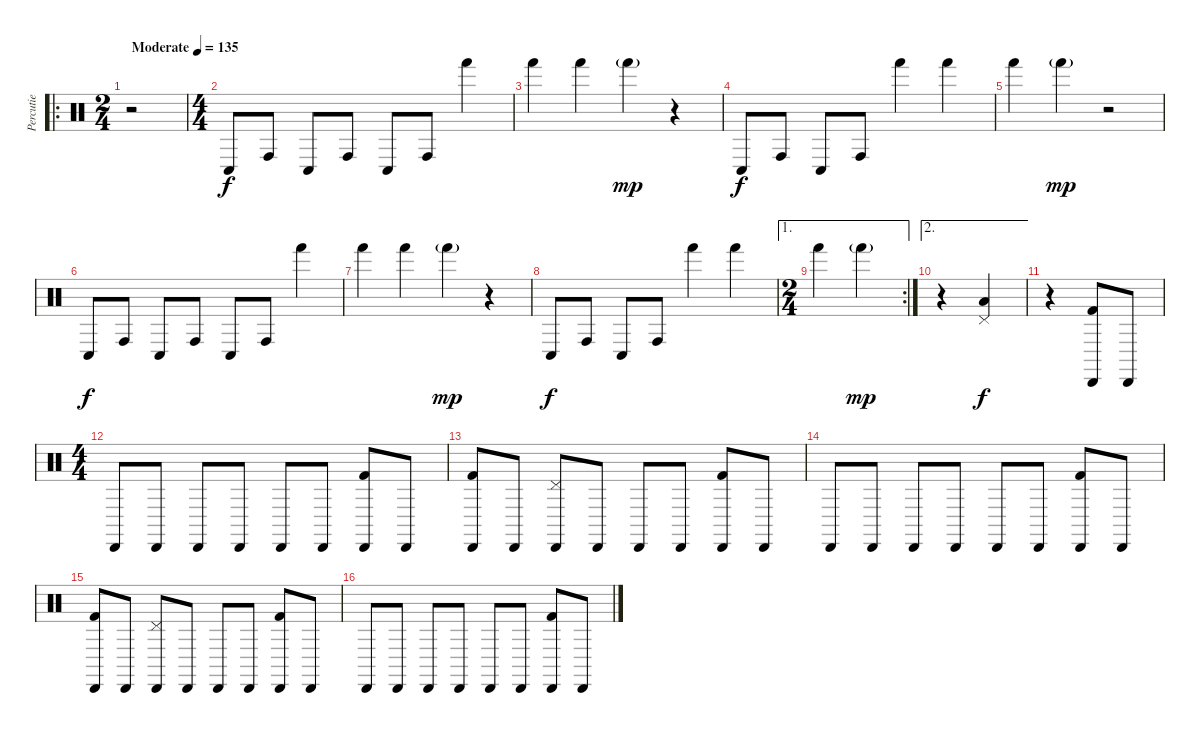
\track ("Percutie" "Percutie") {instrument percussion}
\staff {score}
\articulation defaults
\ro
\ts (2 4)
\tempo (135 "Moderate")
\clef neutral
\ks c
r.2{dy f} |
\ts (4 4)
"Conga low (hit)".8 "Conga high (hit)".8 "Conga low (hit)".8 "Conga high (hit)".8 "Conga low (hit)".8 "Conga high (hit)".8 "Hand (hit)".4 |
"Hand (hit)".4 "Hand (hit)".4 "Hand (hit)"{g}.4{dy mp} r.4 |
"Conga low (hit)".8{dy f} "Conga high (hit)".8 "Conga low (hit)".8 "Conga high (hit)".8 "Hand (hit)".4 "Hand (hit)".4 |
"Hand (hit)".4 "Hand (hit)"{g}.4{dy mp} r.2 |
"Conga low (hit)".8{dy f} "Conga high (hit)".8 "Conga low (hit)".8 "Conga high (hit)".8 "Conga low (hit)".8 "Conga high (hit)".8 "Hand (hit)".4 |
"Hand (hit)".4 "Hand (hit)".4 "Hand (hit)"{g}.4{dy mp} r.4 |
"Conga low (hit)".8{dy f} "Conga high (hit)".8 "Conga low (hit)".8 "Conga high (hit)".8 "Hand (hit)".4 "Hand (hit)".4 |
\ae 1
\rc 2
\ts (2 4)
"Hand (hit)".4 "Hand (hit)"{g}.4{dy mp} |
\ae 2
r.4 ("Pedal Hi-Hat (hit)" "Low Floor Tom (hit)").4{dy f} |
r.4 ("Cabasa (hit)" "Kick (hit) 2").8 "Cabasa (hit)".8 |
\ts (4 4)
"Cabasa (hit)".8 "Cabasa (hit)".8 "Cabasa (hit)".8 "Cabasa (hit)".8 "Cabasa (hit)".8 "Cabasa (hit)".8 ("Cabasa (hit)" "Kick (hit) 2").8 "Cabasa (hit)".8 |
("Cabasa (hit)" "Kick (hit) 2").8 "Cabasa (hit)".8 ("Pedal Hi-Hat (hit)" "Cabasa (hit)").8 "Cabasa (hit)".8 "Cabasa (hit)".8 "Cabasa (hit)".8 ("Cabasa (hit)" "Kick (hit) 2").8 "Cabasa (hit)".8 |
"Cabasa (hit)".8 "Cabasa (hit)".8 "Cabasa (hit)".8 "Cabasa (hit)".8 "Cabasa (hit)".8 "Cabasa (hit)".8 ("Cabasa (hit)" "Kick (hit) 2").8 "Cabasa (hit)".8 |
("Cabasa (hit)" "Kick (hit) 2").8 "Cabasa (hit)".8 ("Pedal Hi-Hat (hit)" "Cabasa (hit)").8 "Cabasa (hit)".8 "Cabasa (hit)".8 "Cabasa (hit)".8 ("Cabasa (hit)" "Kick (hit) 2").8 "Cabasa (hit)".8 |
"Cabasa (hit)".8 "Cabasa (hit)".8 "Cabasa (hit)".8 "Cabasa (hit)".8 "Cabasa (hit)".8 "Cabasa (hit)".8 ("Cabasa (hit)" "Kick (hit) 2").8 "Cabasa (hit)".8
